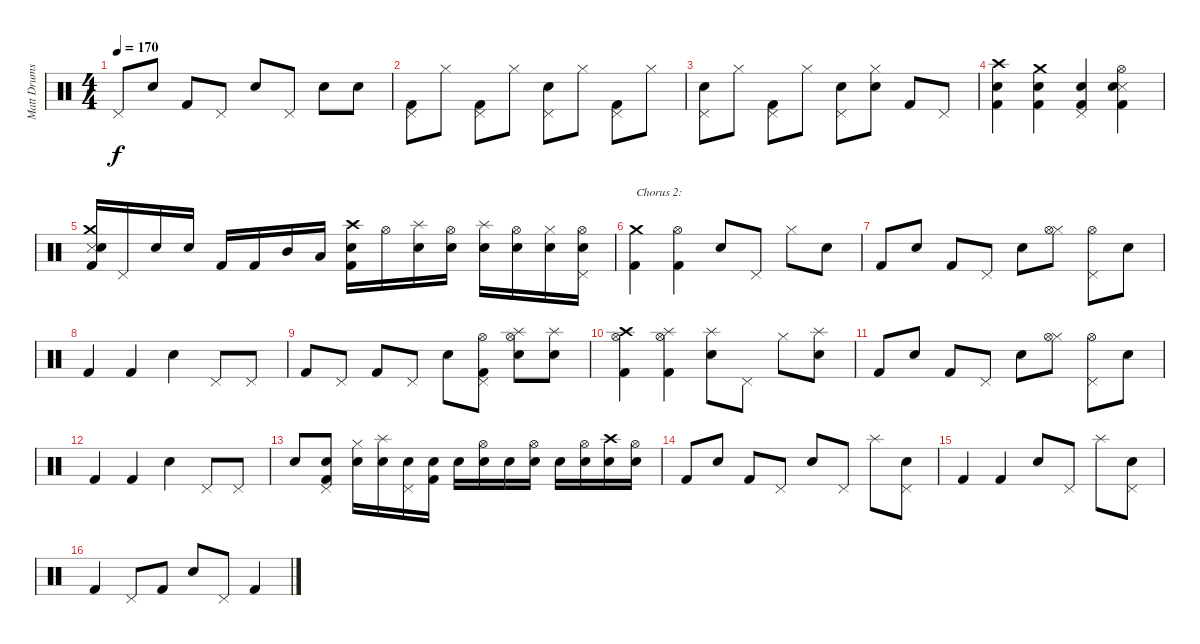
\track ("Matt Drums" "Matt Drums") {instrument percussion}
\staff {score}
\articulation defaults
\ts (4 4)
\tempo 170
\clef neutral
\ks c "Pedal Hi-Hat (hit)".8{dy f} "Electric Snare (hit)".8 "Kick (hit) 2".8 "Pedal Hi-Hat (hit)".8 "Electric Snare (hit)".8 "Pedal Hi-Hat (hit)".8 "Electric Snare (hit)".8 "Electric Snare (hit)".8
|
("Pedal Hi-Hat (hit)" "Kick (hit) 2").8 "Hi-Hat (closed)".8 ("Pedal Hi-Hat (hit)" "Kick (hit) 2").8 "Hi-Hat (closed)".8 ("Pedal Hi-Hat (hit)" "Electric Snare (hit)").8 "Hi-Hat (closed)".8 ("Pedal Hi-Hat (hit)" "Kick (hit) 2").8 "Hi-Hat (closed)".8 |
("Pedal Hi-Hat (hit)" "Electric Snare (hit)").8 "Hi-Hat (closed)".8 ("Pedal Hi-Hat (hit)" "Kick (hit) 2").8 "Hi-Hat (closed)".8 ("Pedal Hi-Hat (hit)" "Electric Snare (hit)").8 ("Hi-Hat (closed)" "Electric Snare (hit)").8 "Kick (hit) 2".8 "Pedal Hi-Hat (hit)".8 |
("Crash high (hit)" "Electric Snare (hit)" "Kick (hit) 2").4 ("Crash medium (hit)" "Electric Snare (hit)" "Kick (hit) 2").4 ("Pedal Hi-Hat (hit)" "Electric Snare (hit)" "Kick (hit) 2").4 ("Snare (side stick) 3" "Electric Snare (hit)" "Kick (hit) 2" "Hi-Hat (open)").4 |
("Crash medium (hit)" "Snare (side stick) 3" "Electric Snare (hit)" "Kick (hit) 2").16 "Pedal Hi-Hat (hit)".16 "Electric Snare (hit)".16 "Electric Snare (hit)".16 "Kick (hit) 2".16 "Kick (hit) 2".16 "Mid Tom (hit)".16 "Low Tom (hit)".16 ("Crash high (hit)" "Electric Snare (hit)" "Kick (hit) 2").16 "Hi-Hat (open)".16 ("Splash (hit)" "Electric Snare (hit)").16 ("Electric Snare (hit)" "Hi-Hat (open)").16 ("Splash (hit)" "Electric Snare (hit)").16 ("Electric Snare (hit)" "Hi-Hat (open)").16 ("Hi-Hat (closed)" "Electric Snare (hit)").16 ("Pedal Hi-Hat (hit)" "Electric Snare (hit)" "Hi-Hat (open)").16 |
("Crash medium (hit)" "Kick (hit) 2").4{txt "Chorus 2:"} ("Kick (hit) 2" "Hi-Hat (open)").4 "Electric Snare (hit)".8 "Pedal Hi-Hat (hit)".8 "Hi-Hat (closed)".8 "Electric Snare (hit)".8 |
"Kick (hit) 2".8 "Electric Snare (hit)".8 "Kick (hit) 2".8 "Pedal Hi-Hat (hit)".8 "Electric Snare (hit)".8 ("Hi-Hat (closed)" "Hi-Hat (open)").8 ("Pedal Hi-Hat (hit)" "Hi-Hat (open)").8 "Electric Snare (hit)".8 |
"Kick (hit) 2".4 "Kick (hit) 2".4 "Electric Snare (hit)".4 "Pedal Hi-Hat (hit)".8 "Pedal Hi-Hat (hit)".8 |
"Kick (hit) 2".8 "Pedal Hi-Hat (hit)".8 "Kick (hit) 2".8 "Pedal Hi-Hat (hit)".8 "Electric Snare (hit)".8 ("Pedal Hi-Hat (hit)" "Kick (hit) 2" "Hi-Hat (open)").8 ("Splash (hit)" "Electric Snare (hit)" "Hi-Hat (open)").8 ("Splash (hit)" "Electric Snare (hit)").8 |
("Crash high (hit)" "Kick (hit) 2" "Hi-Hat (open)").4 ("Splash (hit)" "Kick (hit) 2" "Hi-Hat (open)").4 ("Splash (hit)" "Electric Snare (hit)").8 "Pedal Hi-Hat (hit)".8 "Hi-Hat (closed)".8 ("Splash (hit)" "Electric Snare (hit)").8 |
"Kick (hit) 2".8 "Electric Snare (hit)".8 "Kick (hit) 2".8 "Pedal Hi-Hat (hit)".8 "Electric Snare (hit)".8 ("Hi-Hat (closed)" "Hi-Hat (open)").8 ("Pedal Hi-Hat (hit)" "Hi-Hat (open)").8 "Electric Snare (hit)".8 |
"Kick (hit) 2".4 "Kick (hit) 2".4 "Electric Snare (hit)".4 "Pedal Hi-Hat (hit)".8 "Pedal Hi-Hat (hit)".8 |
"Electric Snare (hit)".8 ("Pedal Hi-Hat (hit)" "Electric Snare (hit)" "Kick (hit) 2").8 ("Hi-Hat (closed)" "Electric Snare (hit)").16 ("Splash (hit)" "Electric Snare (hit)").16 ("Pedal Hi-Hat (hit)" "Electric Snare (hit)").16 ("Electric Snare (hit)" "Kick (hit) 2").16 "Electric Snare (hit)".16 ("Electric Snare (hit)" "Hi-Hat (open)").16 "Electric Snare (hit)".16 ("Electric Snare (hit)" "Hi-Hat (open)").16 "Electric Snare (hit)".16 ("Electric Snare (hit)" "Hi-Hat (open)").16 ("Crash high (hit)" "Electric Snare (hit)").16 ("Electric Snare (hit)" "Hi-Hat (open)").16 |
"Kick (hit) 2".8 "Electric Snare (hit)".8 "Kick (hit) 2".8 "Pedal Hi-Hat (hit)".8 "Electric Snare (hit)".8 "Pedal Hi-Hat (hit)".8 "Splash (hit)".8 ("Pedal Hi-Hat (hit)" "Electric Snare (hit)").8 |
"Kick (hit) 2".4 "Kick (hit) 2".4 "Electric Snare (hit)".8 "Pedal Hi-Hat (hit)".8 "Splash (hit)".8 ("Pedal Hi-Hat (hit)" "Electric Snare (hit)").8 |
"Kick (hit) 2".4 "Pedal Hi-Hat (hit)".8 "Kick (hit) 2".8 "Electric Snare (hit)".8 "Pedal Hi-Hat (hit)".8 "Kick (hit) 2".4
